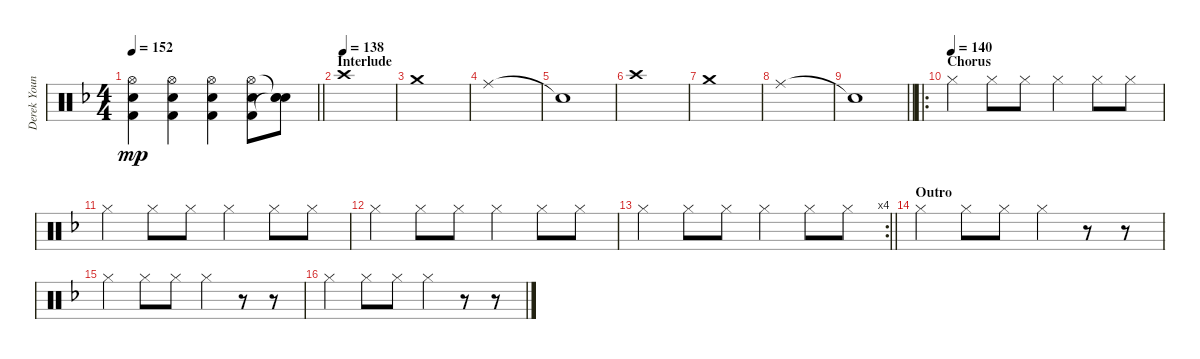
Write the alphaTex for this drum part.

\track ("Derek Youngsma" "Derek Youn") {instrument percussion}
\staff {score}
\articulation defaults
\ts (4 4)
\tempo 152
\clef neutral
\barLineRight lightlight
\ks f
("Hi-Hat (open)" "Electric Snare (hit)" "Kick (hit) 2").4{dy mp} ("Hi-Hat (open)" "Electric Snare (hit)" "Kick (hit) 2").4 ("Hi-Hat (open)" "Electric Snare (hit)" "Kick (hit) 2").4 ("Hi-Hat (open)" "Electric Snare (hit)" "Kick (hit) 2").8 ("Snare (hit)"{t} "Electric Snare (hit)" "Snare (hit)"{t}).8 |
\section ("" "Interlude")
\tempo (138)
"Crash high (hit)".1 |
"Crash medium (hit)".1 |
"Ride (middle)".1 |
"Snare (hit)"{t}.1 |
"Crash high (hit)".1 |
"Crash medium (hit)".1 |
"Ride (middle)".1 |
\barLineRight lightlight "Snare (hit)"{t}.1
|
\ro
\section ("" "Chorus")
\tempo (140)
"Hi-Hat (closed)".4 "Hi-Hat (closed)".8 "Hi-Hat (closed)".8 "Hi-Hat (closed)".4 "Hi-Hat (closed)".8 "Hi-Hat (closed)".8 |
"Hi-Hat (closed)".4 "Hi-Hat (closed)".8 "Hi-Hat (closed)".8 "Hi-Hat (closed)".4 "Hi-Hat (closed)".8 "Hi-Hat (closed)".8 |
"Hi-Hat (closed)".4 "Hi-Hat (closed)".8 "Hi-Hat (closed)".8 "Hi-Hat (closed)".4 "Hi-Hat (closed)".8 "Hi-Hat (closed)".8 |
\rc 4
\barLineRight lightlight "Hi-Hat (closed)".4 "Hi-Hat (closed)".8 "Hi-Hat (closed)".8 "Hi-Hat (closed)".4 "Hi-Hat (closed)".8 "Hi-Hat (closed)".8
|
\section ("" "Outro")
"Hi-Hat (closed)".4 "Hi-Hat (closed)".8 "Hi-Hat (closed)".8 "Hi-Hat (closed)".4 r.8 r.8 |
"Hi-Hat (closed)".4 "Hi-Hat (closed)".8 "Hi-Hat (closed)".8 "Hi-Hat (closed)".4 r.8 r.8 |
"Hi-Hat (closed)".4 "Hi-Hat (closed)".8 "Hi-Hat (closed)".8 "Hi-Hat (closed)".4 r.8 r.8
